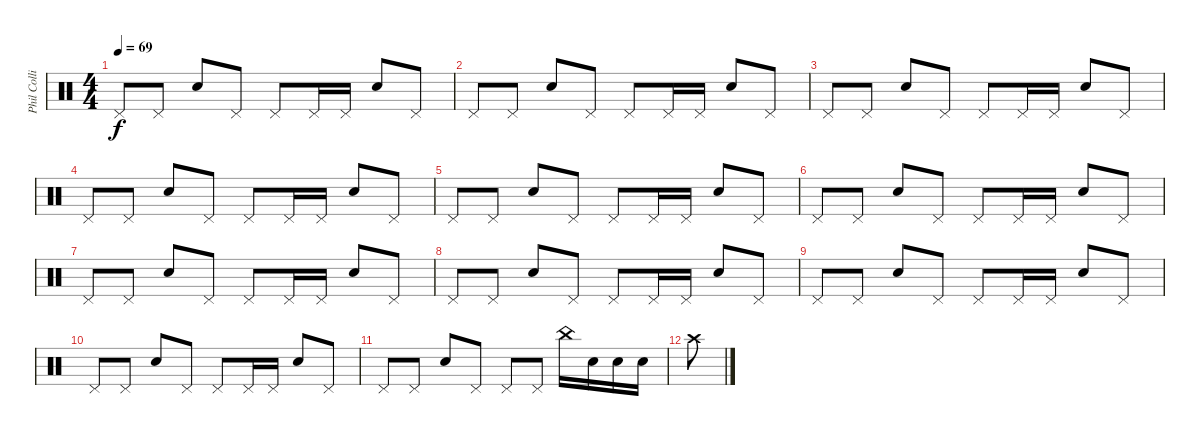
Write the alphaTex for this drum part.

\track ("Phil Collins" "Phil Colli") {instrument percussion}
\staff {score}
\articulation defaults
\ts (4 4)
\tempo 69
\clef neutral
\ks c "Pedal Hi-Hat (hit)".8{dy f} "Pedal Hi-Hat (hit)".8 "Snare (hit) 2".8 "Pedal Hi-Hat (hit)".8 "Pedal Hi-Hat (hit)".8 "Pedal Hi-Hat (hit)".16 "Pedal Hi-Hat (hit)".16 "Snare (hit) 2".8 "Pedal Hi-Hat (hit)".8
|
"Pedal Hi-Hat (hit)".8 "Pedal Hi-Hat (hit)".8 "Snare (hit) 2".8 "Pedal Hi-Hat (hit)".8 "Pedal Hi-Hat (hit)".8 "Pedal Hi-Hat (hit)".16 "Pedal Hi-Hat (hit)".16 "Snare (hit) 2".8 "Pedal Hi-Hat (hit)".8 |
"Pedal Hi-Hat (hit)".8 "Pedal Hi-Hat (hit)".8 "Snare (hit) 2".8 "Pedal Hi-Hat (hit)".8 "Pedal Hi-Hat (hit)".8 "Pedal Hi-Hat (hit)".16 "Pedal Hi-Hat (hit)".16 "Snare (hit) 2".8 "Pedal Hi-Hat (hit)".8 |
"Pedal Hi-Hat (hit)".8 "Pedal Hi-Hat (hit)".8 "Snare (hit) 2".8 "Pedal Hi-Hat (hit)".8 "Pedal Hi-Hat (hit)".8 "Pedal Hi-Hat (hit)".16 "Pedal Hi-Hat (hit)".16 "Snare (hit) 2".8 "Pedal Hi-Hat (hit)".8 |
"Pedal Hi-Hat (hit)".8 "Pedal Hi-Hat (hit)".8 "Snare (hit) 2".8 "Pedal Hi-Hat (hit)".8 "Pedal Hi-Hat (hit)".8 "Pedal Hi-Hat (hit)".16 "Pedal Hi-Hat (hit)".16 "Snare (hit) 2".8 "Pedal Hi-Hat (hit)".8 |
"Pedal Hi-Hat (hit)".8 "Pedal Hi-Hat (hit)".8 "Snare (hit) 2".8 "Pedal Hi-Hat (hit)".8 "Pedal Hi-Hat (hit)".8 "Pedal Hi-Hat (hit)".16 "Pedal Hi-Hat (hit)".16 "Snare (hit) 2".8 "Pedal Hi-Hat (hit)".8 |
"Pedal Hi-Hat (hit)".8 "Pedal Hi-Hat (hit)".8 "Snare (hit) 2".8 "Pedal Hi-Hat (hit)".8 "Pedal Hi-Hat (hit)".8 "Pedal Hi-Hat (hit)".16 "Pedal Hi-Hat (hit)".16 "Snare (hit) 2".8 "Pedal Hi-Hat (hit)".8 |
"Pedal Hi-Hat (hit)".8 "Pedal Hi-Hat (hit)".8 "Snare (hit) 2".8 "Pedal Hi-Hat (hit)".8 "Pedal Hi-Hat (hit)".8 "Pedal Hi-Hat (hit)".16 "Pedal Hi-Hat (hit)".16 "Snare (hit) 2".8 "Pedal Hi-Hat (hit)".8 |
"Pedal Hi-Hat (hit)".8 "Pedal Hi-Hat (hit)".8 "Snare (hit) 2".8 "Pedal Hi-Hat (hit)".8 "Pedal Hi-Hat (hit)".8 "Pedal Hi-Hat (hit)".16 "Pedal Hi-Hat (hit)".16 "Snare (hit) 2".8 "Pedal Hi-Hat (hit)".8 |
"Pedal Hi-Hat (hit)".8 "Pedal Hi-Hat (hit)".8 "Snare (hit) 2".8 "Pedal Hi-Hat (hit)".8 "Pedal Hi-Hat (hit)".8 "Pedal Hi-Hat (hit)".16 "Pedal Hi-Hat (hit)".16 "Snare (hit) 2".8 "Pedal Hi-Hat (hit)".8 |
"Pedal Hi-Hat (hit)".8 "Pedal Hi-Hat (hit)".8 "Snare (hit) 2".8 "Pedal Hi-Hat (hit)".8 "Pedal Hi-Hat (hit)".8 "Pedal Hi-Hat (hit)".8 "China (hit)".16 "Snare (hit) 2".16 "Snare (hit) 2".16 "Snare (hit) 2".16 |
"Crash high (hit)".8
